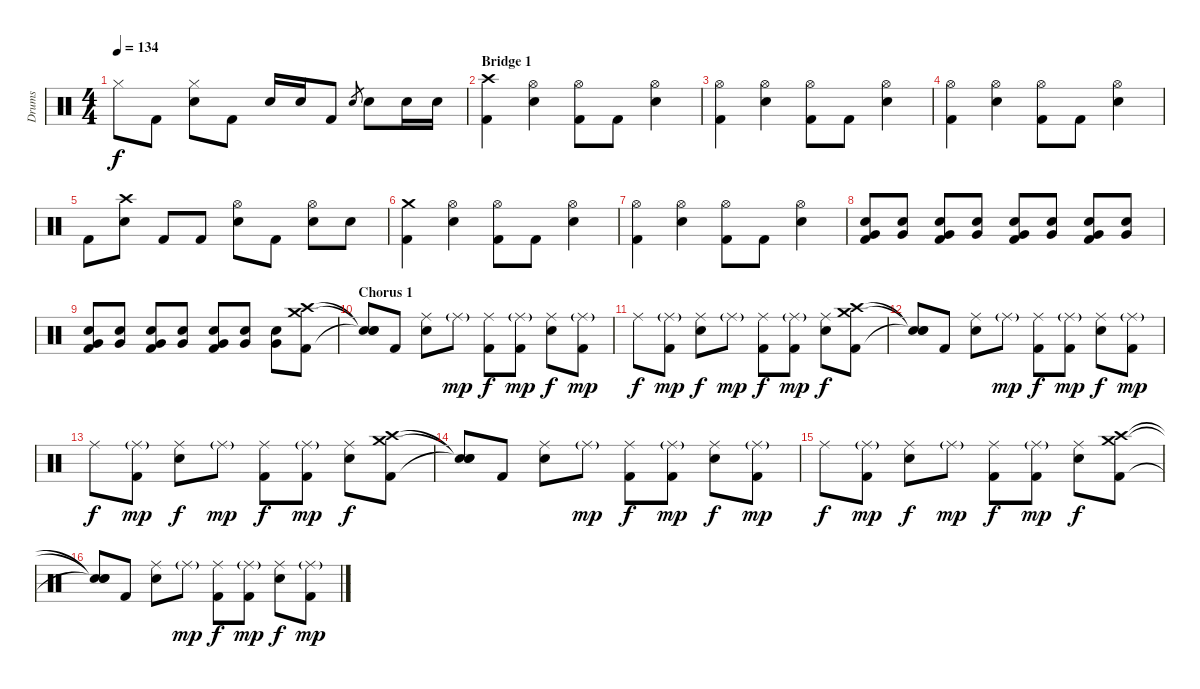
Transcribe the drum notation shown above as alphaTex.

\track ("Drums" "Drums") {instrument percussion}
\staff {score}
\articulation defaults
\ts (4 4)
\tempo 134
\clef neutral
\ks c "Hi-Hat (closed)".8{dy f} "Kick (hit) 2".8
("Hi-Hat (closed)" "Snare (hit) 2").8 "Kick (hit) 2".8 "Snare (hit) 2".16 "Snare (hit) 2".16 "Kick (hit) 2".8 "Snare (hit) 2".8{gr} "Snare (hit) 2".8 "Snare (hit) 2".16 "Snare (hit) 2".16 |
\section ("" "Bridge 1")
("Crash high (hit)" "Kick (hit) 2").4 ("Hi-Hat (open)" "Snare (hit) 2").4 ("Hi-Hat (open)" "Kick (hit) 2").8 "Kick (hit) 2".8 ("Hi-Hat (open)" "Snare (hit) 2").4 |
("Hi-Hat (open)" "Kick (hit) 2").4 ("Hi-Hat (open)" "Snare (hit) 2").4 ("Hi-Hat (open)" "Kick (hit) 2").8 "Kick (hit) 2".8 ("Hi-Hat (open)" "Snare (hit) 2").4 |
("Hi-Hat (open)" "Kick (hit) 2").4 ("Hi-Hat (open)" "Snare (hit) 2").4 ("Hi-Hat (open)" "Kick (hit) 2").8 "Kick (hit) 2".8 ("Hi-Hat (open)" "Snare (hit) 2").4 |
"Kick (hit) 2".8 ("Crash high (hit)" "Snare (hit) 2").8 "Kick (hit) 2".8 "Kick (hit) 2".8 ("Hi-Hat (open)" "Snare (hit) 2").8 "Kick (hit) 2".8 ("Hi-Hat (open)" "Snare (hit) 2").8 "Snare (hit) 2".8 |
("Crash medium (hit)" "Kick (hit) 2").4 ("Hi-Hat (open)" "Snare (hit) 2").4 ("Hi-Hat (open)" "Kick (hit) 2").8 "Kick (hit) 2".8 ("Hi-Hat (open)" "Snare (hit) 2").4 |
("Hi-Hat (open)" "Kick (hit) 2").4 ("Hi-Hat (open)" "Snare (hit) 2").4 ("Hi-Hat (open)" "Kick (hit) 2").8 "Kick (hit) 2".8 ("Hi-Hat (open)" "Snare (hit) 2").4 |
("Very Low Tom (hit)" "Snare (hit) 2" "Kick (hit) 2").8{volume 10} ("Very Low Tom (hit)" "Snare (hit) 2").8{volume 14} ("Very Low Tom (hit)" "Snare (hit) 2" "Kick (hit) 2").8 ("Very Low Tom (hit)" "Snare (hit) 2").8 ("Very Low Tom (hit)" "Snare (hit) 2" "Kick (hit) 2").8 ("Very Low Tom (hit)" "Snare (hit) 2").8 ("Very Low Tom (hit)" "Snare (hit) 2" "Kick (hit) 2").8 ("Very Low Tom (hit)" "Snare (hit) 2").8 |
("Very Low Tom (hit)" "Snare (hit) 2" "Kick (hit) 2").8 ("Very Low Tom (hit)" "Snare (hit) 2").8 ("Very Low Tom (hit)" "Snare (hit) 2" "Kick (hit) 2").8 ("Very Low Tom (hit)" "Snare (hit) 2").8 ("Very Low Tom (hit)" "Snare (hit) 2" "Kick (hit) 2").8 ("Very Low Tom (hit)" "Snare (hit) 2").8 ("Very Low Tom (hit)" "Snare (hit) 2").8 ("Crash medium (hit)" "Crash high (hit)" "Kick (hit) 2").8 |
\section ("" "Chorus 1")
("Snare (hit)"{t} "Snare (hit)"{t} "Snare (hit)"{t}).8 "Kick (hit) 2".8 ("Ride (middle)" "Snare (hit) 2").8 "Ride (middle)"{g}.8{dy mp} ("Ride (middle)" "Kick (hit) 2").8{dy f} ("Ride (middle)"{g} "Kick (hit) 2").8{dy mp} ("Ride (middle)" "Snare (hit) 2").8{dy f} ("Ride (middle)"{g} "Kick (hit) 2").8{dy mp} |
"Ride (middle)".8{dy f} ("Ride (middle)"{g} "Kick (hit) 2").8{dy mp} ("Ride (middle)" "Snare (hit) 2").8{dy f} "Ride (middle)"{g}.8{dy mp} ("Ride (middle)" "Kick (hit) 2").8{dy f} ("Ride (middle)"{g} "Kick (hit) 2").8{dy mp} ("Ride (middle)" "Snare (hit) 2").8{dy f} ("Crash medium (hit)" "Crash high (hit)" "Kick (hit) 2").8 |
("Snare (hit)"{t} "Snare (hit)"{t} "Snare (hit)"{t}).8 "Kick (hit) 2".8 ("Ride (middle)" "Snare (hit) 2").8 "Ride (middle)"{g}.8{dy mp} ("Ride (middle)" "Kick (hit) 2").8{dy f} ("Ride (middle)"{g} "Kick (hit) 2").8{dy mp} ("Ride (middle)" "Snare (hit) 2").8{dy f} ("Ride (middle)"{g} "Kick (hit) 2").8{dy mp} |
"Ride (middle)".8{dy f} ("Ride (middle)"{g} "Kick (hit) 2").8{dy mp} ("Ride (middle)" "Snare (hit) 2").8{dy f} "Ride (middle)"{g}.8{dy mp} ("Ride (middle)" "Kick (hit) 2").8{dy f} ("Ride (middle)"{g} "Kick (hit) 2").8{dy mp} ("Ride (middle)" "Snare (hit) 2").8{dy f} ("Crash medium (hit)" "Crash high (hit)" "Kick (hit) 2").8 |
("Snare (hit)"{t} "Snare (hit)"{t} "Snare (hit)"{t}).8 "Kick (hit) 2".8 ("Ride (middle)" "Snare (hit) 2").8 "Ride (middle)"{g}.8{dy mp} ("Ride (middle)" "Kick (hit) 2").8{dy f} ("Ride (middle)"{g} "Kick (hit) 2").8{dy mp} ("Ride (middle)" "Snare (hit) 2").8{dy f} ("Ride (middle)"{g} "Kick (hit) 2").8{dy mp} |
"Ride (middle)".8{dy f} ("Ride (middle)"{g} "Kick (hit) 2").8{dy mp} ("Ride (middle)" "Snare (hit) 2").8{dy f} "Ride (middle)"{g}.8{dy mp} ("Ride (middle)" "Kick (hit) 2").8{dy f} ("Ride (middle)"{g} "Kick (hit) 2").8{dy mp} ("Ride (middle)" "Snare (hit) 2").8{dy f} ("Crash medium (hit)" "Crash high (hit)" "Kick (hit) 2").8 |
("Snare (hit)"{t} "Snare (hit)"{t} "Snare (hit)"{t}).8 "Kick (hit) 2".8 ("Ride (middle)" "Snare (hit) 2").8 "Ride (middle)"{g}.8{dy mp} ("Ride (middle)" "Kick (hit) 2").8{dy f} ("Ride (middle)"{g} "Kick (hit) 2").8{dy mp} ("Ride (middle)" "Snare (hit) 2").8{dy f} ("Ride (middle)"{g} "Kick (hit) 2").8{dy mp}
